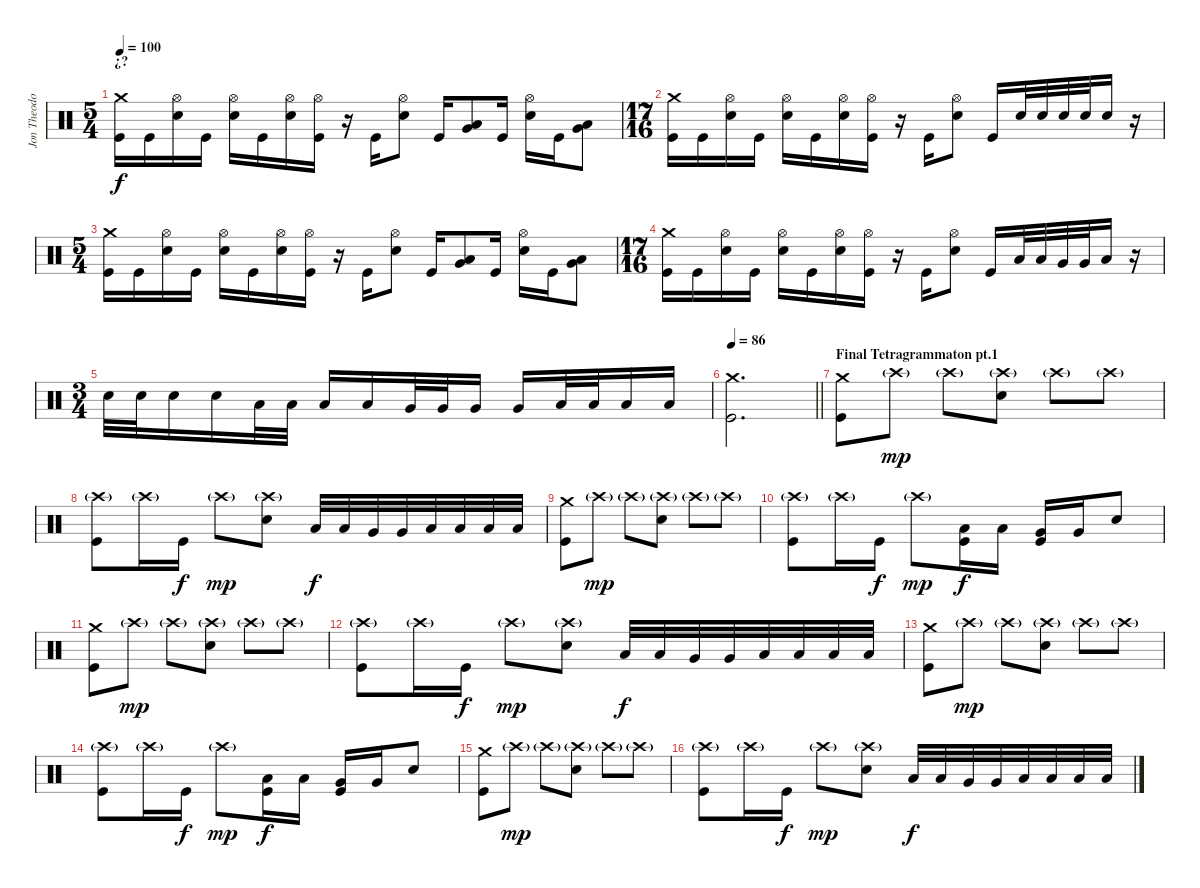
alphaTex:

\track ("Jon Theodore" "Jon Theodo") {instrument percussion}
\staff {score}
\articulation defaults
\ts (5 4)
\section ("" "¿?")
\tempo 100
\clef neutral
\ks c
("Crash medium (hit)" "Kick (hit)").16{dy f volume 12} "Kick (hit)".16 ("Hi-Hat (open)" "Snare (hit) 2").16 "Kick (hit)".16 ("Hi-Hat (open)" "Snare (hit) 2").16 "Kick (hit)".16 ("Hi-Hat (open)" "Snare (hit) 2").16 ("Hi-Hat (open)" "Kick (hit)").16 r.16 "Kick (hit)".16 ("Hi-Hat (open)" "Snare (hit) 2").8 "Kick (hit)".16 ("Low Tom (hit)" "Very Low Tom (hit)").8 "Kick (hit)".16 ("Hi-Hat (open)" "Snare (hit) 2").16 "Kick (hit)".16 ("Low Tom (hit)" "Very Low Tom (hit)").8 |
\ts (17 16)
("Crash medium (hit)" "Kick (hit)").16 "Kick (hit)".16 ("Hi-Hat (open)" "Snare (hit) 2").16 "Kick (hit)".16 ("Hi-Hat (open)" "Snare (hit) 2").16 "Kick (hit)".16 ("Hi-Hat (open)" "Snare (hit) 2").16 ("Hi-Hat (open)" "Kick (hit)").16 r.16 "Kick (hit)".16 ("Hi-Hat (open)" "Snare (hit) 2").8 "Kick (hit)".16 "Snare (hit) 2".32 "Snare (hit) 2".32 "Snare (hit) 2".32 "Snare (hit) 2".32 "Snare (hit) 2".16 r.16 |
\ts (5 4)
("Crash medium (hit)" "Kick (hit)").16 "Kick (hit)".16 ("Hi-Hat (open)" "Snare (hit) 2").16 "Kick (hit)".16 ("Hi-Hat (open)" "Snare (hit) 2").16 "Kick (hit)".16 ("Hi-Hat (open)" "Snare (hit) 2").16 ("Hi-Hat (open)" "Kick (hit)").16 r.16 "Kick (hit)".16 ("Hi-Hat (open)" "Snare (hit) 2").8 "Kick (hit)".16 ("Low Tom (hit)" "Very Low Tom (hit)").8 "Kick (hit)".16 ("Hi-Hat (open)" "Snare (hit) 2").16 "Kick (hit)".16 ("Low Tom (hit)" "Very Low Tom (hit)").8 |
\ts (17 16)
("Crash medium (hit)" "Kick (hit)").16 "Kick (hit)".16 ("Hi-Hat (open)" "Snare (hit) 2").16 "Kick (hit)".16 ("Hi-Hat (open)" "Snare (hit) 2").16 "Kick (hit)".16 ("Hi-Hat (open)" "Snare (hit) 2").16 ("Hi-Hat (open)" "Kick (hit)").16 r.16 "Kick (hit)".16 ("Hi-Hat (open)" "Snare (hit) 2").8 "Kick (hit)".16 "Low Tom (hit)".32 "Low Tom (hit)".32 "Very Low Tom (hit)".32 "Very Low Tom (hit)".32 "Low Floor Tom (hit)".16 r.16 |
\ts (3 4)
"Snare (hit) 2".32 "Snare (hit) 2".32 "Snare (hit) 2".16 "Snare (hit) 2".16 "Low Tom (hit)".32 "Low Tom (hit)".32 "Low Tom (hit)".16 "Low Tom (hit)".16 "Very Low Tom (hit)".32 "Very Low Tom (hit)".32 "Very Low Tom (hit)".16 "Very Low Tom (hit)".16 "Low Floor Tom (hit)".32 "Low Floor Tom (hit)".32 "Low Floor Tom (hit)".16 "Low Floor Tom (hit)".16 |
\tempo 86
\barLineRight lightlight
("Crash medium (hit)" "Kick (hit)").2{d} |
\section ("" "Final Tetragrammaton pt.1")
("Crash medium (hit)" "Kick (hit)").8 "Crash high (hit)"{g}.8{dy mp} "Crash high (hit)"{g}.8 ("Crash high (hit)"{g} "Snare (hit) 2").8 "Crash high (hit)"{g}.8 "Crash high (hit)"{g}.8 |
("Crash high (hit)"{g} "Kick (hit)").8 "Crash high (hit)"{g}.16 "Kick (hit)".16{dy f} "Crash high (hit)"{g}.8{dy mp} ("Crash high (hit)"{g} "Snare (hit) 2").8 "Low Tom (hit)".32{dy f} "Low Tom (hit)".32 "Very Low Tom (hit)".32 "Very Low Tom (hit)".32 "Low Floor Tom (hit)".32 "Low Floor Tom (hit)".32 "Low Floor Tom (hit)".32 "Low Floor Tom (hit)".32 |
("Crash medium (hit)" "Kick (hit)").8 "Crash high (hit)"{g}.8{dy mp} "Crash high (hit)"{g}.8 ("Crash high (hit)"{g} "Snare (hit) 2").8 "Crash high (hit)"{g}.8 "Crash high (hit)"{g}.8 |
("Crash high (hit)"{g} "Kick (hit)").8 "Crash high (hit)"{g}.16 "Kick (hit)".16{dy f} "Crash high (hit)"{g}.8{dy mp} ("Low Tom (hit)" "Kick (hit)").16{dy f} "Low Tom (hit)".16 ("Very Low Tom (hit)" "Kick (hit)").16 "Very Low Tom (hit)".16 "Snare (hit) 2".8 |
("Crash medium (hit)" "Kick (hit)").8 "Crash high (hit)"{g}.8{dy mp} "Crash high (hit)"{g}.8 ("Crash high (hit)"{g} "Snare (hit) 2").8 "Crash high (hit)"{g}.8 "Crash high (hit)"{g}.8 |
("Crash high (hit)"{g} "Kick (hit)").8 "Crash high (hit)"{g}.16 "Kick (hit)".16{dy f} "Crash high (hit)"{g}.8{dy mp} ("Crash high (hit)"{g} "Snare (hit) 2").8 "Low Tom (hit)".32{dy f} "Low Tom (hit)".32 "Very Low Tom (hit)".32 "Very Low Tom (hit)".32 "Low Floor Tom (hit)".32 "Low Floor Tom (hit)".32 "Low Floor Tom (hit)".32 "Low Floor Tom (hit)".32 |
("Crash medium (hit)" "Kick (hit)").8 "Crash high (hit)"{g}.8{dy mp} "Crash high (hit)"{g}.8 ("Crash high (hit)"{g} "Snare (hit) 2").8 "Crash high (hit)"{g}.8 "Crash high (hit)"{g}.8 |
("Crash high (hit)"{g} "Kick (hit)").8 "Crash high (hit)"{g}.16 "Kick (hit)".16{dy f} "Crash high (hit)"{g}.8{dy mp} ("Low Tom (hit)" "Kick (hit)").16{dy f} "Low Tom (hit)".16 ("Very Low Tom (hit)" "Kick (hit)").16 "Very Low Tom (hit)".16 "Snare (hit) 2".8 |
("Crash medium (hit)" "Kick (hit)").8 "Crash high (hit)"{g}.8{dy mp} "Crash high (hit)"{g}.8 ("Crash high (hit)"{g} "Snare (hit) 2").8 "Crash high (hit)"{g}.8 "Crash high (hit)"{g}.8 |
("Crash high (hit)"{g} "Kick (hit)").8 "Crash high (hit)"{g}.16 "Kick (hit)".16{dy f} "Crash high (hit)"{g}.8{dy mp} ("Crash high (hit)"{g} "Snare (hit) 2").8 "Low Tom (hit)".32{dy f} "Low Tom (hit)".32 "Very Low Tom (hit)".32 "Very Low Tom (hit)".32 "Low Floor Tom (hit)".32 "Low Floor Tom (hit)".32 "Low Floor Tom (hit)".32 "Low Floor Tom (hit)".32
